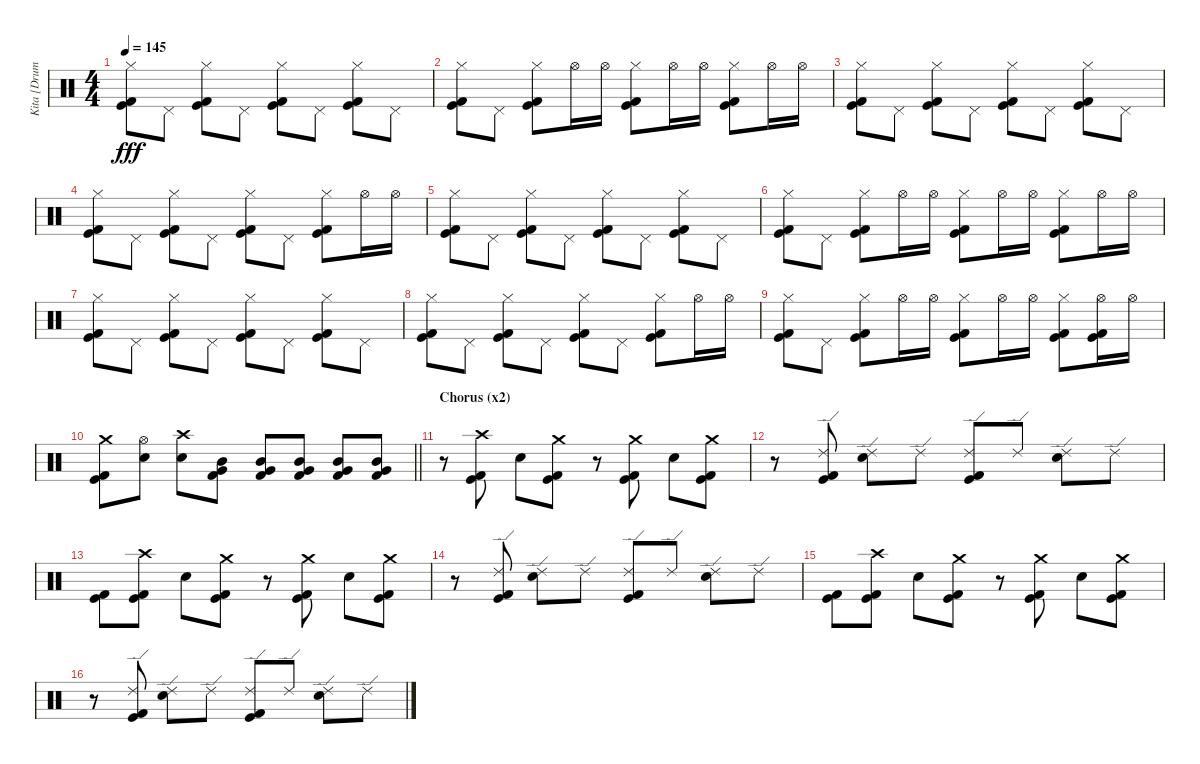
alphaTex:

\track ("Kita [Drums]" "Kita [Drum") {instrument percussion}
\staff {score}
\articulation defaults
\ts (4 4)
\tempo 145
\clef neutral
\ks c
("Hi-Hat (closed)" "Kick (hit)" "Kick (hit) 2").8{dy fff} "Pedal Hi-Hat (hit)".8 ("Hi-Hat (closed)" "Kick (hit)" "Kick (hit) 2").8 "Pedal Hi-Hat (hit)".8 ("Hi-Hat (closed)" "Kick (hit)" "Kick (hit) 2").8 "Pedal Hi-Hat (hit)".8 ("Hi-Hat (closed)" "Kick (hit)" "Kick (hit) 2").8 "Pedal Hi-Hat (hit)".8 |
("Hi-Hat (closed)" "Kick (hit)" "Kick (hit) 2").8 "Pedal Hi-Hat (hit)".8 ("Hi-Hat (closed)" "Kick (hit)" "Kick (hit) 2").8 "Hi-Hat (open)".16 "Hi-Hat (open)".16 ("Hi-Hat (closed)" "Kick (hit)" "Kick (hit) 2").8 "Hi-Hat (open)".16 "Hi-Hat (open)".16 ("Hi-Hat (closed)" "Kick (hit)" "Kick (hit) 2").8 "Hi-Hat (open)".16 "Hi-Hat (open)".16 |
("Hi-Hat (closed)" "Kick (hit)" "Kick (hit) 2").8 "Pedal Hi-Hat (hit)".8 ("Hi-Hat (closed)" "Kick (hit)" "Kick (hit) 2").8 "Pedal Hi-Hat (hit)".8 ("Hi-Hat (closed)" "Kick (hit)" "Kick (hit) 2").8 "Pedal Hi-Hat (hit)".8 ("Hi-Hat (closed)" "Kick (hit)" "Kick (hit) 2").8 "Pedal Hi-Hat (hit)".8 |
("Hi-Hat (closed)" "Kick (hit)" "Kick (hit) 2").8 "Pedal Hi-Hat (hit)".8 ("Hi-Hat (closed)" "Kick (hit)" "Kick (hit) 2").8 "Pedal Hi-Hat (hit)".8 ("Hi-Hat (closed)" "Kick (hit)" "Kick (hit) 2").8 "Pedal Hi-Hat (hit)".8 ("Hi-Hat (closed)" "Kick (hit)" "Kick (hit) 2").8 "Hi-Hat (open)".16 "Hi-Hat (open)".16 |
("Hi-Hat (closed)" "Kick (hit)" "Kick (hit) 2").8 "Pedal Hi-Hat (hit)".8 ("Hi-Hat (closed)" "Kick (hit)" "Kick (hit) 2").8 "Pedal Hi-Hat (hit)".8 ("Hi-Hat (closed)" "Kick (hit)" "Kick (hit) 2").8 "Pedal Hi-Hat (hit)".8 ("Hi-Hat (closed)" "Kick (hit)" "Kick (hit) 2").8 "Pedal Hi-Hat (hit)".8 |
("Hi-Hat (closed)" "Kick (hit)" "Kick (hit) 2").8 "Pedal Hi-Hat (hit)".8 ("Hi-Hat (closed)" "Kick (hit)" "Kick (hit) 2").8 "Hi-Hat (open)".16 "Hi-Hat (open)".16 ("Hi-Hat (closed)" "Kick (hit)" "Kick (hit) 2").8 "Hi-Hat (open)".16 "Hi-Hat (open)".16 ("Hi-Hat (closed)" "Kick (hit)" "Kick (hit) 2").8 "Hi-Hat (open)".16 "Hi-Hat (open)".16 |
("Hi-Hat (closed)" "Kick (hit)" "Kick (hit) 2").8 "Pedal Hi-Hat (hit)".8 ("Hi-Hat (closed)" "Kick (hit)" "Kick (hit) 2").8 "Pedal Hi-Hat (hit)".8 ("Hi-Hat (closed)" "Kick (hit)" "Kick (hit) 2").8 "Pedal Hi-Hat (hit)".8 ("Hi-Hat (closed)" "Kick (hit)" "Kick (hit) 2").8 "Pedal Hi-Hat (hit)".8 |
("Hi-Hat (closed)" "Kick (hit)" "Kick (hit) 2").8 "Pedal Hi-Hat (hit)".8 ("Hi-Hat (closed)" "Kick (hit)" "Kick (hit) 2").8 "Pedal Hi-Hat (hit)".8 ("Hi-Hat (closed)" "Kick (hit)" "Kick (hit) 2").8 "Pedal Hi-Hat (hit)".8 ("Hi-Hat (closed)" "Kick (hit)" "Kick (hit) 2").8 "Hi-Hat (open)".16 "Hi-Hat (open)".16 |
("Hi-Hat (closed)" "Kick (hit)" "Kick (hit) 2").8 "Pedal Hi-Hat (hit)".8 ("Hi-Hat (closed)" "Kick (hit)" "Kick (hit) 2").8 "Hi-Hat (open)".16 "Hi-Hat (open)".16 ("Hi-Hat (closed)" "Kick (hit)" "Kick (hit) 2").8 "Hi-Hat (open)".16 "Hi-Hat (open)".16 ("Hi-Hat (closed)" "Kick (hit)" "Kick (hit) 2").8 ("Hi-Hat (open)" "Kick (hit)" "Kick (hit) 2").16 "Hi-Hat (open)".16 |
\barLineRight lightlight
("Crash medium (hit)" "Kick (hit)" "Kick (hit) 2").8 ("Hi-Hat (open)" "Electric Snare (hit)").8 ("Crash high (hit)" "Electric Snare (hit)").8 ("Mid Tom (hit)" "Very Low Tom (hit)" "Kick (hit) 2").8 ("Mid Tom (hit)" "Very Low Tom (hit)" "Kick (hit) 2").8 ("Mid Tom (hit)" "Very Low Tom (hit)" "Kick (hit) 2").8 ("Mid Tom (hit)" "Very Low Tom (hit)" "Kick (hit) 2").8 ("Mid Tom (hit)" "Very Low Tom (hit)" "Kick (hit) 2").8 |
\section ("" "Chorus (x2)")
r.8 ("Crash high (hit)" "Kick (hit)" "Kick (hit) 2").8 "Electric Snare (hit)".8 ("Crash medium (hit)" "Kick (hit)" "Kick (hit) 2").8 r.8 ("Crash medium (hit)" "Kick (hit)" "Kick (hit) 2").8 "Electric Snare (hit)".8 ("Crash medium (hit)" "Kick (hit)" "Kick (hit) 2").8 |
r.8 ("Ride (edge) 2" "Kick (hit)" "Kick (hit) 2").8 ("Ride (edge) 2" "Electric Snare (hit)").8 "Ride (edge) 2".8 ("Ride (edge) 2" "Kick (hit)" "Kick (hit) 2").8 "Ride (edge) 2".8 ("Ride (edge) 2" "Electric Snare (hit)").8 "Ride (edge) 2".8 |
("Kick (hit)" "Kick (hit) 2").8 ("Crash high (hit)" "Kick (hit)" "Kick (hit) 2").8 "Electric Snare (hit)".8 ("Crash medium (hit)" "Kick (hit)" "Kick (hit) 2").8 r.8 ("Crash medium (hit)" "Kick (hit)" "Kick (hit) 2").8 "Electric Snare (hit)".8 ("Crash medium (hit)" "Kick (hit)" "Kick (hit) 2").8 |
r.8 ("Ride (edge) 2" "Kick (hit)" "Kick (hit) 2").8 ("Ride (edge) 2" "Electric Snare (hit)").8 "Ride (edge) 2".8 ("Ride (edge) 2" "Kick (hit)" "Kick (hit) 2").8 "Ride (edge) 2".8 ("Ride (edge) 2" "Electric Snare (hit)").8 "Ride (edge) 2".8 |
("Kick (hit)" "Kick (hit) 2").8 ("Crash high (hit)" "Kick (hit)" "Kick (hit) 2").8 "Electric Snare (hit)".8 ("Crash medium (hit)" "Kick (hit)" "Kick (hit) 2").8 r.8 ("Crash medium (hit)" "Kick (hit)" "Kick (hit) 2").8 "Electric Snare (hit)".8 ("Crash medium (hit)" "Kick (hit)" "Kick (hit) 2").8 |
r.8 ("Ride (edge) 2" "Kick (hit)" "Kick (hit) 2").8 ("Ride (edge) 2" "Electric Snare (hit)").8 "Ride (edge) 2".8 ("Ride (edge) 2" "Kick (hit)" "Kick (hit) 2").8 "Ride (edge) 2".8 ("Ride (edge) 2" "Electric Snare (hit)").8 "Ride (edge) 2".8
